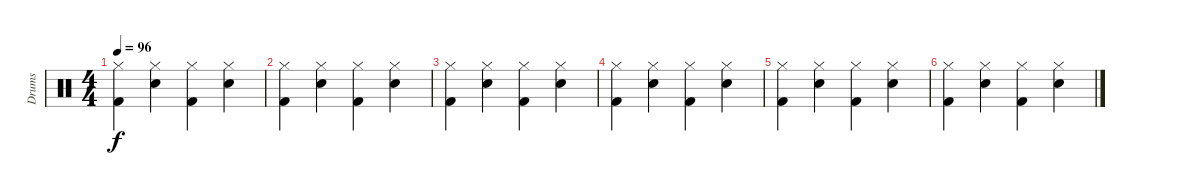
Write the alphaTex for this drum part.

\track ("Drums" "Drums") {instrument percussion}
\staff {score}
\articulation defaults
\ts (4 4)
\tempo 96
\clef neutral
\ks c
("Hi-Hat (closed)" "Kick (hit) 2").4{dy f} ("Hi-Hat (closed)" "Snare (hit) 2").4 ("Hi-Hat (closed)" "Kick (hit) 2").4 ("Hi-Hat (closed)" "Snare (hit) 2").4 |
("Hi-Hat (closed)" "Kick (hit) 2").4 ("Hi-Hat (closed)" "Snare (hit) 2").4 ("Hi-Hat (closed)" "Kick (hit) 2").4 ("Hi-Hat (closed)" "Snare (hit) 2").4 |
("Hi-Hat (closed)" "Kick (hit) 2").4 ("Hi-Hat (closed)" "Snare (hit) 2").4 ("Hi-Hat (closed)" "Kick (hit) 2").4 ("Hi-Hat (closed)" "Snare (hit) 2").4 |
("Hi-Hat (closed)" "Kick (hit) 2").4 ("Hi-Hat (closed)" "Snare (hit) 2").4 ("Hi-Hat (closed)" "Kick (hit) 2").4 ("Hi-Hat (closed)" "Snare (hit) 2").4 |
("Hi-Hat (closed)" "Kick (hit) 2").4 ("Hi-Hat (closed)" "Snare (hit) 2").4 ("Hi-Hat (closed)" "Kick (hit) 2").4 ("Hi-Hat (closed)" "Snare (hit) 2").4 |
("Hi-Hat (closed)" "Kick (hit) 2").4 ("Hi-Hat (closed)" "Snare (hit) 2").4 ("Hi-Hat (closed)" "Kick (hit) 2").4 ("Hi-Hat (closed)" "Snare (hit) 2").4
